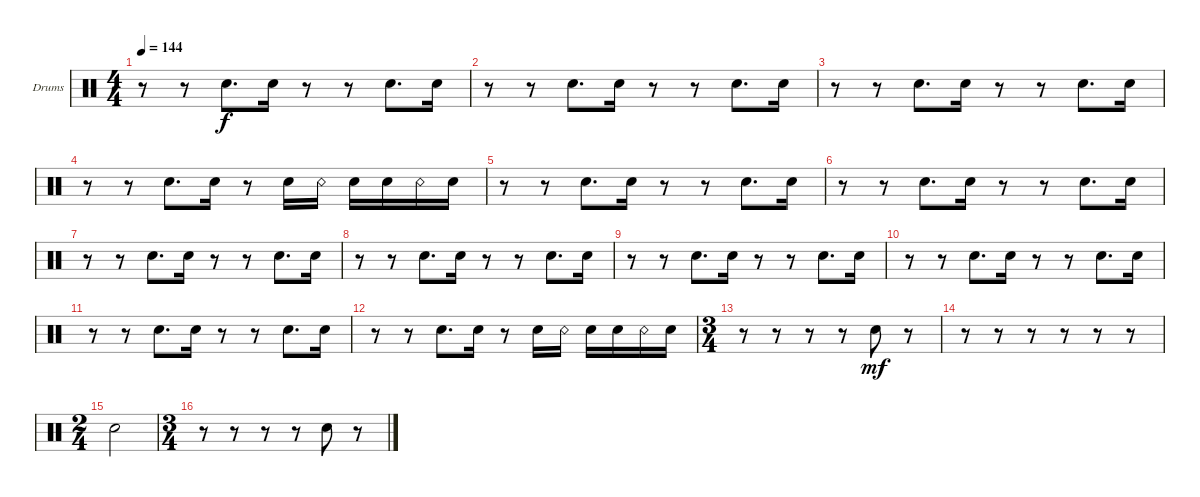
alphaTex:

\defaultSystemsLayout 4
\bracketExtendMode groupsimilarinstruments
\firstSystemTrackNameOrientation horizontal
\otherSystemsTrackNameOrientation horizontal
\track ("Snare" "Drums") {instrument percussion}
\staff {score}
\articulation defaults
\ts (4 4)
\tempo 144
\clef neutral
\ks c
r.8{dy f} r.8 "Snare (hit) 2".8{d} "Snare (hit) 2".16 r.8 r.8 "Snare (hit) 2".8{d} "Snare (hit) 2".16 |
r.8 r.8 "Snare (hit) 2".8{d} "Snare (hit) 2".16 r.8 r.8 "Snare (hit) 2".8{d} "Snare (hit) 2".16 |
r.8 r.8 "Snare (hit) 2".8{d} "Snare (hit) 2".16 r.8 r.8 "Snare (hit) 2".8{d} "Snare (hit) 2".16 |
r.8 r.8 "Snare (hit) 2".8{d} "Snare (hit) 2".16 r.8 "Snare (hit) 2".16 "Snare (rim shot)".16 "Snare (hit) 2".16 "Snare (hit) 2".16 "Snare (rim shot)".16 "Snare (hit) 2".16 |
r.8 r.8 "Snare (hit) 2".8{d} "Snare (hit) 2".16 r.8 r.8 "Snare (hit) 2".8{d} "Snare (hit) 2".16 |
r.8 r.8 "Snare (hit) 2".8{d} "Snare (hit) 2".16 r.8 r.8 "Snare (hit) 2".8{d} "Snare (hit) 2".16 |
r.8 r.8 "Snare (hit) 2".8{d} "Snare (hit) 2".16 r.8 r.8 "Snare (hit) 2".8{d} "Snare (hit) 2".16 |
r.8 r.8 "Snare (hit) 2".8{d} "Snare (hit) 2".16 r.8 r.8 "Snare (hit) 2".8{d} "Snare (hit) 2".16 |
r.8 r.8 "Snare (hit) 2".8{d} "Snare (hit) 2".16 r.8 r.8 "Snare (hit) 2".8{d} "Snare (hit) 2".16 |
r.8 r.8 "Snare (hit) 2".8{d} "Snare (hit) 2".16 r.8 r.8 "Snare (hit) 2".8{d} "Snare (hit) 2".16 |
r.8 r.8 "Snare (hit) 2".8{d} "Snare (hit) 2".16 r.8 r.8 "Snare (hit) 2".8{d} "Snare (hit) 2".16 |
r.8 r.8 "Snare (hit) 2".8{d} "Snare (hit) 2".16 r.8 "Snare (hit) 2".16 "Snare (rim shot)".16 "Snare (hit) 2".16 "Snare (hit) 2".16 "Snare (rim shot)".16 "Snare (hit) 2".16 |
\ts (3 4)
r.8 r.8 r.8 r.8 "Snare (hit) 2".8{dy mf} r.8 |
r.8 r.8 r.8 r.8 r.8 r.8 |
\ts (2 4)
"Snare (hit) 2".2 |
\ts (3 4)
r.8 r.8 r.8 r.8 "Snare (hit) 2".8 r.8
